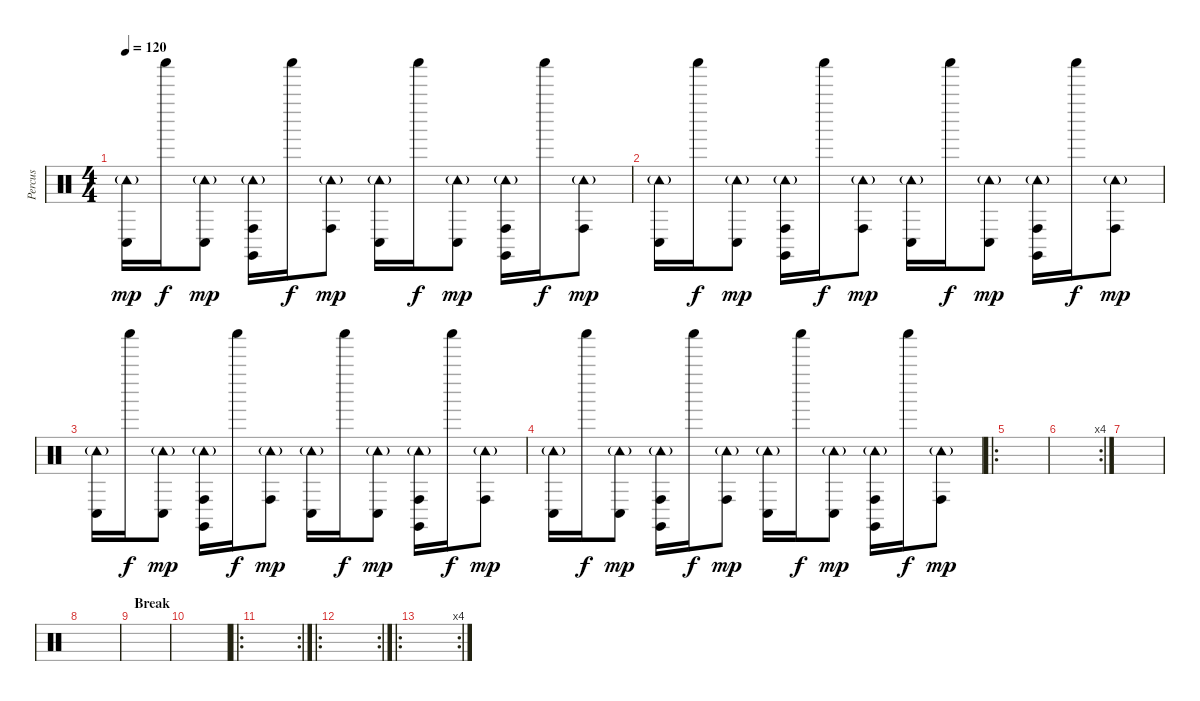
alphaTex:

\track ("Percus" "Percus") {instrument percussion}
\staff {score}
\articulation defaults
\ts (4 4)
\tempo 120
\clef neutral
\ks c
("Conga low (hit)" "Tambourine (hit)"{g}).16{dy mp} "Shaker (hit)".16{dy f} ("Conga low (hit)" "Tambourine (hit)"{g}).8{dy mp} ("Conga high (hit)" "Claves (hit)" "Tambourine (hit)"{g}).16 "Shaker (hit)".16{dy f} ("Conga high (hit)" "Tambourine (hit)"{g}).8{dy mp} ("Conga low (hit)" "Tambourine (hit)"{g}).16 "Shaker (hit)".16{dy f} ("Conga low (hit)" "Tambourine (hit)"{g}).8{dy mp} ("Conga high (hit)" "Claves (hit)" "Tambourine (hit)"{g}).16 "Shaker (hit)".16{dy f} ("Conga high (hit)" "Tambourine (hit)"{g}).8{dy mp} |
("Conga low (hit)" "Tambourine (hit)"{g}).16 "Shaker (hit)".16{dy f} ("Conga low (hit)" "Tambourine (hit)"{g}).8{dy mp} ("Conga high (hit)" "Claves (hit)" "Tambourine (hit)"{g}).16 "Shaker (hit)".16{dy f} ("Conga high (hit)" "Tambourine (hit)"{g}).8{dy mp} ("Conga low (hit)" "Tambourine (hit)"{g}).16 "Shaker (hit)".16{dy f} ("Conga low (hit)" "Tambourine (hit)"{g}).8{dy mp} ("Conga high (hit)" "Claves (hit)" "Tambourine (hit)"{g}).16 "Shaker (hit)".16{dy f} ("Conga high (hit)" "Tambourine (hit)"{g}).8{dy mp} |
("Conga low (hit)" "Tambourine (hit)"{g}).16 "Shaker (hit)".16{dy f} ("Conga low (hit)" "Tambourine (hit)"{g}).8{dy mp} ("Conga high (hit)" "Claves (hit)" "Tambourine (hit)"{g}).16 "Shaker (hit)".16{dy f} ("Conga high (hit)" "Tambourine (hit)"{g}).8{dy mp} ("Conga low (hit)" "Tambourine (hit)"{g}).16 "Shaker (hit)".16{dy f} ("Conga low (hit)" "Tambourine (hit)"{g}).8{dy mp} ("Conga high (hit)" "Claves (hit)" "Tambourine (hit)"{g}).16 "Shaker (hit)".16{dy f} ("Conga high (hit)" "Tambourine (hit)"{g}).8{dy mp} |
("Conga low (hit)" "Tambourine (hit)"{g}).16 "Shaker (hit)".16{dy f} ("Conga low (hit)" "Tambourine (hit)"{g}).8{dy mp} ("Conga high (hit)" "Claves (hit)" "Tambourine (hit)"{g}).16 "Shaker (hit)".16{dy f} ("Conga high (hit)" "Tambourine (hit)"{g}).8{dy mp} ("Conga low (hit)" "Tambourine (hit)"{g}).16 "Shaker (hit)".16{dy f} ("Conga low (hit)" "Tambourine (hit)"{g}).8{dy mp} ("Conga high (hit)" "Claves (hit)" "Tambourine (hit)"{g}).16 "Shaker (hit)".16{dy f} ("Conga high (hit)" "Tambourine (hit)"{g}).8{dy mp} |
\ro
|
\rc 4
|
|
|
\section ("" "Break")
|
|
\ro
\rc 2
|
\ro
\rc 2
|
\ro
\rc 4
